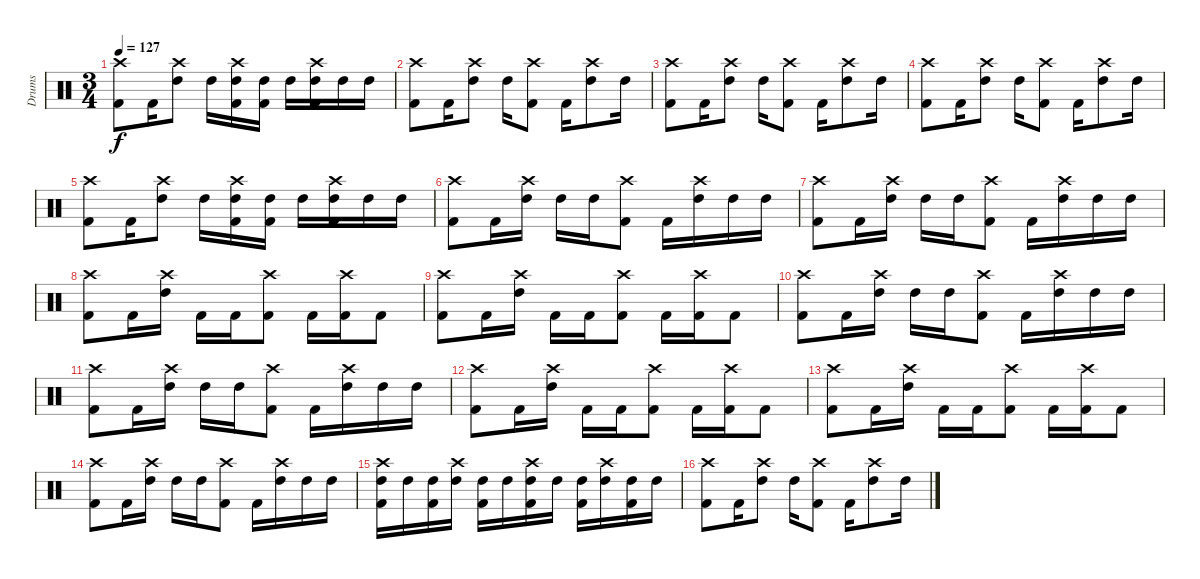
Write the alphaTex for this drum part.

\track ("Drums" "Drums") {instrument percussion}
\staff {score}
\articulation defaults
\ts (3 4)
\tempo 127
\clef neutral
\ks c
("Crash high (hit)" "Kick (hit) 2").8{dy f} "Kick (hit) 2".16 ("Crash high (hit)" "High Tom (hit)").8 "High Tom (hit)".16 ("Crash high (hit)" "High Tom (hit)" "Kick (hit) 2").16 ("High Tom (hit)" "Kick (hit) 2").16 "High Tom (hit)".16 ("Crash high (hit)" "High Tom (hit)" "Kick (hit) 2").16 "High Tom (hit)".16 "High Tom (hit)".16 |
("Crash high (hit)" "Kick (hit) 2").8 "Kick (hit) 2".16 ("Crash high (hit)" "High Tom (hit)").8 "High Tom (hit)".16 ("Crash high (hit)" "Kick (hit) 2").8 "Kick (hit) 2".16 ("Crash high (hit)" "High Tom (hit)").8 "High Tom (hit)".16 |
("Crash high (hit)" "Kick (hit) 2").8 "Kick (hit) 2".16 ("Crash high (hit)" "High Tom (hit)").8 "High Tom (hit)".16 ("Crash high (hit)" "Kick (hit) 2").8 "Kick (hit) 2".16 ("Crash high (hit)" "High Tom (hit)").8 "High Tom (hit)".16 |
("Crash high (hit)" "Kick (hit) 2").8 "Kick (hit) 2".16 ("Crash high (hit)" "High Tom (hit)").8 "High Tom (hit)".16 ("Crash high (hit)" "Kick (hit) 2").8 "Kick (hit) 2".16 ("Crash high (hit)" "High Tom (hit)").8 "High Tom (hit)".16 |
("Crash high (hit)" "Kick (hit) 2").8 "Kick (hit) 2".16 ("Crash high (hit)" "High Tom (hit)").8 "High Tom (hit)".16 ("Crash high (hit)" "High Tom (hit)" "Kick (hit) 2").16 ("High Tom (hit)" "Kick (hit) 2").16 "High Tom (hit)".16 ("Crash high (hit)" "High Tom (hit)" "Kick (hit) 2").16 "High Tom (hit)".16 "High Tom (hit)".16 |
("Crash high (hit)" "Kick (hit) 2").8 "Kick (hit) 2".16 ("Crash high (hit)" "High Tom (hit)").16 "High Tom (hit)".16 "High Tom (hit)".16 ("Crash high (hit)" "Kick (hit) 2").8 "Kick (hit) 2".16 ("Crash high (hit)" "High Tom (hit)").16 "High Tom (hit)".16 "High Tom (hit)".16 |
("Crash high (hit)" "Kick (hit) 2").8 "Kick (hit) 2".16 ("Crash high (hit)" "High Tom (hit)").16 "High Tom (hit)".16 "High Tom (hit)".16 ("Crash high (hit)" "Kick (hit) 2").8 "Kick (hit) 2".16 ("Crash high (hit)" "High Tom (hit)").16 "High Tom (hit)".16 "High Tom (hit)".16 |
("Crash high (hit)" "Kick (hit) 2").8 "Kick (hit) 2".16 ("Crash high (hit)" "High Tom (hit)").16 "Kick (hit) 2".16 "Kick (hit) 2".16 ("Crash high (hit)" "Kick (hit) 2").8 "Kick (hit) 2".16 ("Crash high (hit)" "Kick (hit) 2").16 "Kick (hit) 2".8 |
("Crash high (hit)" "Kick (hit) 2").8 "Kick (hit) 2".16 ("Crash high (hit)" "High Tom (hit)").16 "Kick (hit) 2".16 "Kick (hit) 2".16 ("Crash high (hit)" "Kick (hit) 2").8 "Kick (hit) 2".16 ("Crash high (hit)" "Kick (hit) 2").16 "Kick (hit) 2".8 |
("Crash high (hit)" "Kick (hit) 2").8 "Kick (hit) 2".16 ("Crash high (hit)" "High Tom (hit)").16 "High Tom (hit)".16 "High Tom (hit)".16 ("Crash high (hit)" "Kick (hit) 2").8 "Kick (hit) 2".16 ("Crash high (hit)" "High Tom (hit)").16 "High Tom (hit)".16 "High Tom (hit)".16 |
("Crash high (hit)" "Kick (hit) 2").8 "Kick (hit) 2".16 ("Crash high (hit)" "High Tom (hit)").16 "High Tom (hit)".16 "High Tom (hit)".16 ("Crash high (hit)" "Kick (hit) 2").8 "Kick (hit) 2".16 ("Crash high (hit)" "High Tom (hit)").16 "High Tom (hit)".16 "High Tom (hit)".16 |
("Crash high (hit)" "Kick (hit) 2").8 "Kick (hit) 2".16 ("Crash high (hit)" "High Tom (hit)").16 "Kick (hit) 2".16 "Kick (hit) 2".16 ("Crash high (hit)" "Kick (hit) 2").8 "Kick (hit) 2".16 ("Crash high (hit)" "Kick (hit) 2").16 "Kick (hit) 2".8 |
("Crash high (hit)" "Kick (hit) 2").8 "Kick (hit) 2".16 ("Crash high (hit)" "High Tom (hit)").16 "Kick (hit) 2".16 "Kick (hit) 2".16 ("Crash high (hit)" "Kick (hit) 2").8 "Kick (hit) 2".16 ("Crash high (hit)" "Kick (hit) 2").16 "Kick (hit) 2".8 |
("Crash high (hit)" "Kick (hit) 2").8 "Kick (hit) 2".16 ("Crash high (hit)" "High Tom (hit)").16 "High Tom (hit)".16 "High Tom (hit)".16 ("Crash high (hit)" "Kick (hit) 2").8 "Kick (hit) 2".16 ("Crash high (hit)" "High Tom (hit)").16 "High Tom (hit)".16 "High Tom (hit)".16 |
("Crash high (hit)" "High Tom (hit)" "Kick (hit) 2").16 "High Tom (hit)".16 ("High Tom (hit)" "Kick (hit) 2").16 ("Crash high (hit)" "High Tom (hit)").16 ("High Tom (hit)" "Kick (hit) 2").16 "High Tom (hit)".16 ("Crash high (hit)" "High Tom (hit)" "Kick (hit) 2").16 "High Tom (hit)".16 ("High Tom (hit)" "Kick (hit) 2").16 ("Crash high (hit)" "High Tom (hit)").16 ("High Tom (hit)" "Kick (hit) 2").16 "High Tom (hit)".16 |
("Crash high (hit)" "Kick (hit) 2").8 "Kick (hit) 2".16 ("Crash high (hit)" "High Tom (hit)").8 "High Tom (hit)".16 ("Crash high (hit)" "Kick (hit) 2").8 "Kick (hit) 2".16 ("Crash high (hit)" "High Tom (hit)").8 "High Tom (hit)".16
